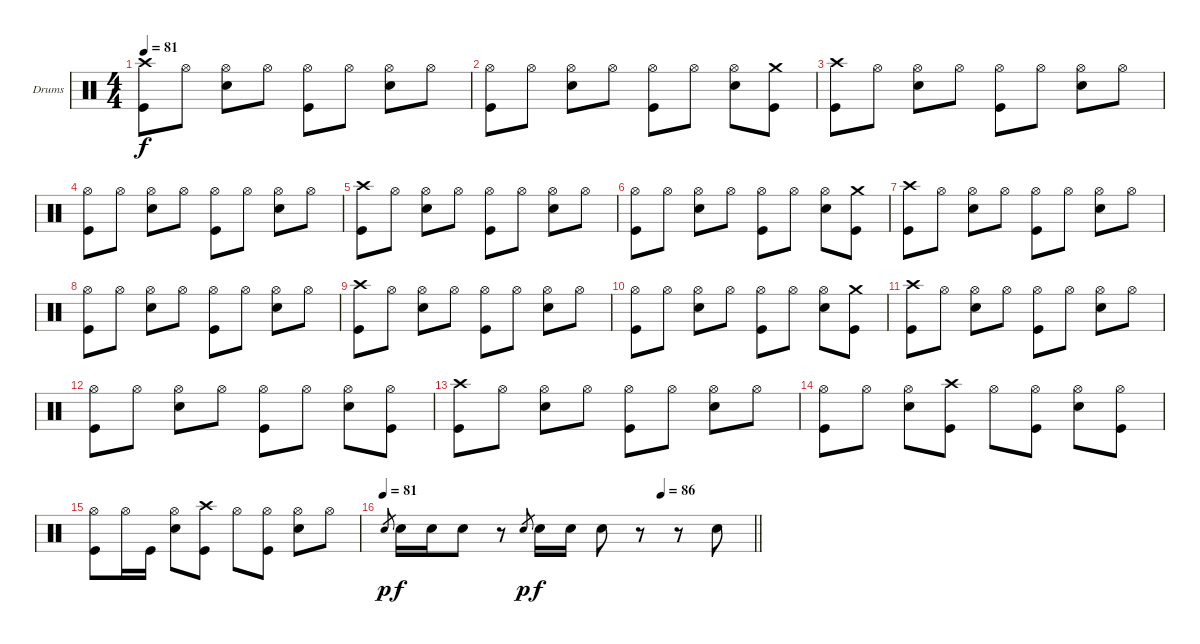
\bracketExtendMode groupsimilarinstruments
\firstSystemTrackNameOrientation horizontal
\otherSystemsTrackNameOrientation horizontal
\track ("Drumkit" "Drums") {instrument percussion}
\staff {score}
\articulation defaults
\ts (4 4)
\tempo 81
\clef neutral
\ks c
("Crash high (hit)" "Kick (hit)").8{dy f} "Hi-Hat (open)".8 ("Hi-Hat (open)" "Snare (hit) 2").8 "Hi-Hat (open)".8 ("Hi-Hat (open)" "Kick (hit)").8 "Hi-Hat (open)".8 ("Hi-Hat (open)" "Snare (hit) 2").8 "Hi-Hat (open)".8 |
("Hi-Hat (open)" "Kick (hit)").8 "Hi-Hat (open)".8 ("Hi-Hat (open)" "Snare (hit) 2").8 "Hi-Hat (open)".8 ("Hi-Hat (open)" "Kick (hit)").8 "Hi-Hat (open)".8 ("Hi-Hat (open)" "Snare (hit) 2").8 ("Kick (hit)" "Crash medium (hit)").8 |
("Crash high (hit)" "Kick (hit)").8 "Hi-Hat (open)".8 ("Hi-Hat (open)" "Snare (hit) 2").8 "Hi-Hat (open)".8 ("Hi-Hat (open)" "Kick (hit)").8 "Hi-Hat (open)".8 ("Hi-Hat (open)" "Snare (hit) 2").8 "Hi-Hat (open)".8 |
("Hi-Hat (open)" "Kick (hit)").8 "Hi-Hat (open)".8 ("Hi-Hat (open)" "Snare (hit) 2").8 "Hi-Hat (open)".8 ("Hi-Hat (open)" "Kick (hit)").8 "Hi-Hat (open)".8 ("Hi-Hat (open)" "Snare (hit) 2").8 "Hi-Hat (open)".8 |
("Crash high (hit)" "Kick (hit)").8 "Hi-Hat (open)".8 ("Hi-Hat (open)" "Snare (hit) 2").8 "Hi-Hat (open)".8 ("Hi-Hat (open)" "Kick (hit)").8 "Hi-Hat (open)".8 ("Hi-Hat (open)" "Snare (hit) 2").8 "Hi-Hat (open)".8 |
("Hi-Hat (open)" "Kick (hit)").8 "Hi-Hat (open)".8 ("Hi-Hat (open)" "Snare (hit) 2").8 "Hi-Hat (open)".8 ("Hi-Hat (open)" "Kick (hit)").8 "Hi-Hat (open)".8 ("Hi-Hat (open)" "Snare (hit) 2").8 ("Kick (hit)" "Crash medium (hit)").8 |
("Crash high (hit)" "Kick (hit)").8 "Hi-Hat (open)".8 ("Hi-Hat (open)" "Snare (hit) 2").8 "Hi-Hat (open)".8 ("Hi-Hat (open)" "Kick (hit)").8 "Hi-Hat (open)".8 ("Hi-Hat (open)" "Snare (hit) 2").8 "Hi-Hat (open)".8 |
("Hi-Hat (open)" "Kick (hit)").8 "Hi-Hat (open)".8 ("Hi-Hat (open)" "Snare (hit) 2").8 "Hi-Hat (open)".8 ("Hi-Hat (open)" "Kick (hit)").8 "Hi-Hat (open)".8 ("Hi-Hat (open)" "Snare (hit) 2").8 "Hi-Hat (open)".8 |
("Crash high (hit)" "Kick (hit)").8 "Hi-Hat (open)".8 ("Hi-Hat (open)" "Snare (hit) 2").8 "Hi-Hat (open)".8 ("Hi-Hat (open)" "Kick (hit)").8 "Hi-Hat (open)".8 ("Hi-Hat (open)" "Snare (hit) 2").8 "Hi-Hat (open)".8 |
("Hi-Hat (open)" "Kick (hit)").8 "Hi-Hat (open)".8 ("Hi-Hat (open)" "Snare (hit) 2").8 "Hi-Hat (open)".8 ("Hi-Hat (open)" "Kick (hit)").8 "Hi-Hat (open)".8 ("Hi-Hat (open)" "Snare (hit) 2").8 ("Kick (hit)" "Crash medium (hit)").8 |
("Crash high (hit)" "Kick (hit)").8 "Hi-Hat (open)".8 ("Hi-Hat (open)" "Snare (hit) 2").8 "Hi-Hat (open)".8 ("Hi-Hat (open)" "Kick (hit)").8 "Hi-Hat (open)".8 ("Hi-Hat (open)" "Snare (hit) 2").8 "Hi-Hat (open)".8 |
("Hi-Hat (open)" "Kick (hit)").8 "Hi-Hat (open)".8 ("Hi-Hat (open)" "Snare (hit) 2").8 "Hi-Hat (open)".8 ("Hi-Hat (open)" "Kick (hit)").8 "Hi-Hat (open)".8 ("Hi-Hat (open)" "Snare (hit) 2").8 ("Hi-Hat (open)" "Kick (hit)").8 |
("Crash high (hit)" "Kick (hit)").8 "Hi-Hat (open)".8 ("Hi-Hat (open)" "Snare (hit) 2").8 "Hi-Hat (open)".8 ("Hi-Hat (open)" "Kick (hit)").8 "Hi-Hat (open)".8 ("Hi-Hat (open)" "Snare (hit) 2").8 "Hi-Hat (open)".8 |
("Hi-Hat (open)" "Kick (hit)").8 "Hi-Hat (open)".8 ("Hi-Hat (open)" "Snare (hit) 2").8 ("Kick (hit)" "Crash high (hit)").8 "Hi-Hat (open)".8 ("Hi-Hat (open)" "Kick (hit)").8 ("Hi-Hat (open)" "Snare (hit) 2").8 ("Hi-Hat (open)" "Kick (hit)").8 |
("Hi-Hat (open)" "Kick (hit)").8 "Hi-Hat (open)".16 "Kick (hit)".16 ("Snare (hit) 2" "Hi-Hat (open)").8 ("Kick (hit)" "Crash high (hit)").8 "Hi-Hat (open)".8 ("Kick (hit)" "Hi-Hat (open)").8 ("Snare (hit) 2" "Hi-Hat (open)").8 "Hi-Hat (open)".8 |
\tempo 81
\tempo (86 0.75)
\barLineRight lightlight "Snare (hit) 2".8{gr dy p} "Snare (hit) 2".16{dy f} "Snare (hit) 2".16 "Snare (hit) 2".8
r.8 "Snare (hit) 2".8{gr dy p} "Snare (hit) 2".16{dy f} "Snare (hit) 2".16 "Snare (hit) 2".8 r.8 r.8 "Snare (hit) 2".8
